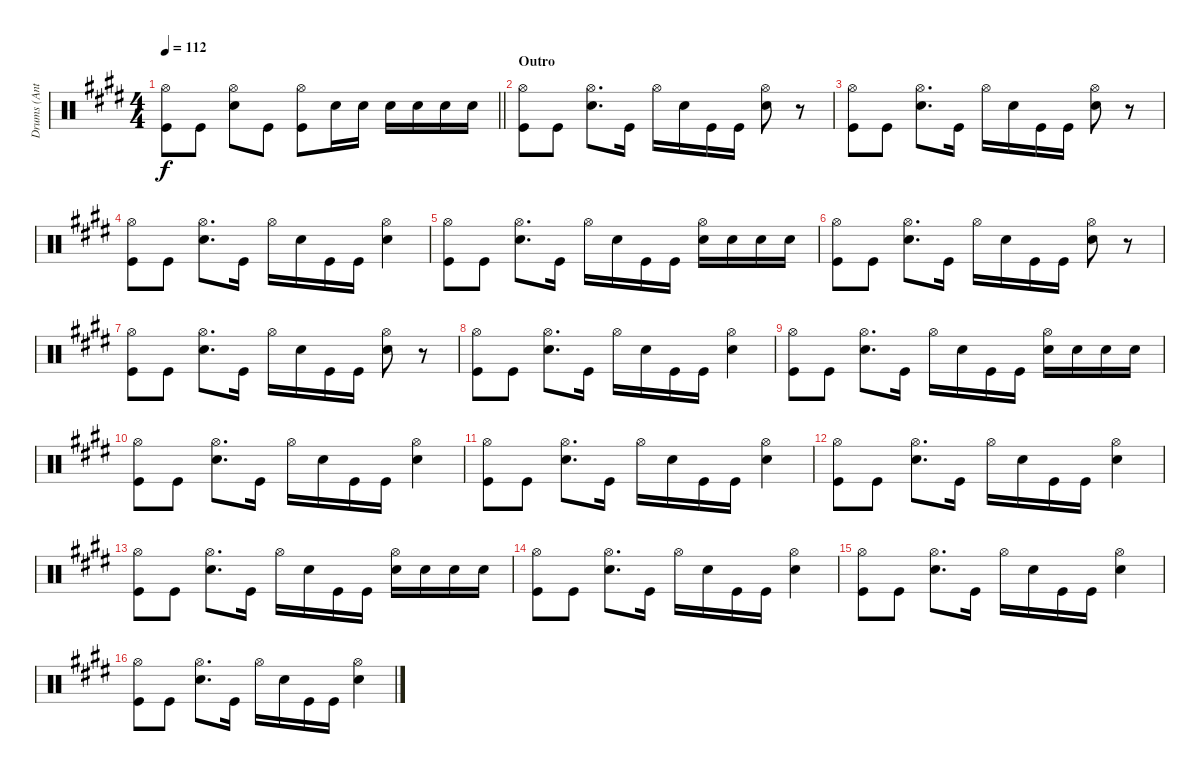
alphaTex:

\track ("Drums (Ant)" "Drums (Ant") {instrument percussion}
\staff {score}
\articulation defaults
\ts (4 4)
\tempo 112
\clef neutral
\barLineRight lightlight
\ks e
("Hi-Hat (open)" "Kick (hit)").8{dy f} "Kick (hit)".8 ("Hi-Hat (open)" "Snare (hit) 2").8 "Kick (hit)".8 ("Hi-Hat (open)" "Kick (hit)").8 "Snare (hit) 2".16 "Snare (hit) 2".16 "Snare (hit) 2".16 "Snare (hit) 2".16 "Snare (hit) 2".16 "Snare (hit) 2".16 |
\section ("" "Outro")
("Hi-Hat (open)" "Kick (hit)").8 "Kick (hit)".8 ("Hi-Hat (open)" "Snare (hit) 2").8{d} "Kick (hit)".16 "Hi-Hat (open)".16 "Snare (hit) 2".16 "Kick (hit)".16 "Kick (hit)".16 ("Hi-Hat (open)" "Snare (hit) 2").8 r.8 |
("Hi-Hat (open)" "Kick (hit)").8 "Kick (hit)".8 ("Hi-Hat (open)" "Snare (hit) 2").8{d} "Kick (hit)".16 "Hi-Hat (open)".16 "Snare (hit) 2".16 "Kick (hit)".16 "Kick (hit)".16 ("Hi-Hat (open)" "Snare (hit) 2").8 r.8 |
("Hi-Hat (open)" "Kick (hit)").8 "Kick (hit)".8 ("Hi-Hat (open)" "Snare (hit) 2").8{d} "Kick (hit)".16 "Hi-Hat (open)".16 "Snare (hit) 2".16 "Kick (hit)".16 "Kick (hit)".16 ("Hi-Hat (open)" "Snare (hit) 2").4 |
("Hi-Hat (open)" "Kick (hit)").8 "Kick (hit)".8 ("Hi-Hat (open)" "Snare (hit) 2").8{d} "Kick (hit)".16 "Hi-Hat (open)".16 "Snare (hit) 2".16 "Kick (hit)".16 "Kick (hit)".16 ("Hi-Hat (open)" "Snare (hit) 2").16 "Snare (hit) 2".16 "Snare (hit) 2".16 "Snare (hit) 2".16 |
("Hi-Hat (open)" "Kick (hit)").8 "Kick (hit)".8 ("Hi-Hat (open)" "Snare (hit) 2").8{d} "Kick (hit)".16 "Hi-Hat (open)".16 "Snare (hit) 2".16 "Kick (hit)".16 "Kick (hit)".16 ("Hi-Hat (open)" "Snare (hit) 2").8 r.8 |
("Hi-Hat (open)" "Kick (hit)").8 "Kick (hit)".8 ("Hi-Hat (open)" "Snare (hit) 2").8{d} "Kick (hit)".16 "Hi-Hat (open)".16 "Snare (hit) 2".16 "Kick (hit)".16 "Kick (hit)".16 ("Hi-Hat (open)" "Snare (hit) 2").8 r.8 |
("Hi-Hat (open)" "Kick (hit)").8 "Kick (hit)".8 ("Hi-Hat (open)" "Snare (hit) 2").8{d} "Kick (hit)".16 "Hi-Hat (open)".16 "Snare (hit) 2".16 "Kick (hit)".16 "Kick (hit)".16 ("Hi-Hat (open)" "Snare (hit) 2").4 |
("Hi-Hat (open)" "Kick (hit)").8 "Kick (hit)".8 ("Hi-Hat (open)" "Snare (hit) 2").8{d} "Kick (hit)".16 "Hi-Hat (open)".16 "Snare (hit) 2".16 "Kick (hit)".16 "Kick (hit)".16 ("Hi-Hat (open)" "Snare (hit) 2").16 "Snare (hit) 2".16 "Snare (hit) 2".16 "Snare (hit) 2".16 |
("Hi-Hat (open)" "Kick (hit)").8 "Kick (hit)".8 ("Hi-Hat (open)" "Snare (hit) 2").8{d} "Kick (hit)".16 "Hi-Hat (open)".16 "Snare (hit) 2".16 "Kick (hit)".16 "Kick (hit)".16 ("Hi-Hat (open)" "Snare (hit) 2").4 |
("Hi-Hat (open)" "Kick (hit)").8 "Kick (hit)".8 ("Hi-Hat (open)" "Snare (hit) 2").8{d} "Kick (hit)".16 "Hi-Hat (open)".16 "Snare (hit) 2".16 "Kick (hit)".16 "Kick (hit)".16 ("Hi-Hat (open)" "Snare (hit) 2").4 |
("Hi-Hat (open)" "Kick (hit)").8 "Kick (hit)".8 ("Hi-Hat (open)" "Snare (hit) 2").8{d} "Kick (hit)".16 "Hi-Hat (open)".16 "Snare (hit) 2".16 "Kick (hit)".16 "Kick (hit)".16 ("Hi-Hat (open)" "Snare (hit) 2").4 |
("Hi-Hat (open)" "Kick (hit)").8 "Kick (hit)".8 ("Hi-Hat (open)" "Snare (hit) 2").8{d} "Kick (hit)".16 "Hi-Hat (open)".16 "Snare (hit) 2".16 "Kick (hit)".16 "Kick (hit)".16 ("Hi-Hat (open)" "Snare (hit) 2").16 "Snare (hit) 2".16 "Snare (hit) 2".16 "Snare (hit) 2".16 |
("Hi-Hat (open)" "Kick (hit)").8 "Kick (hit)".8 ("Hi-Hat (open)" "Snare (hit) 2").8{d} "Kick (hit)".16 "Hi-Hat (open)".16 "Snare (hit) 2".16 "Kick (hit)".16 "Kick (hit)".16 ("Hi-Hat (open)" "Snare (hit) 2").4 |
("Hi-Hat (open)" "Kick (hit)").8 "Kick (hit)".8 ("Hi-Hat (open)" "Snare (hit) 2").8{d} "Kick (hit)".16 "Hi-Hat (open)".16 "Snare (hit) 2".16 "Kick (hit)".16 "Kick (hit)".16 ("Hi-Hat (open)" "Snare (hit) 2").4 |
("Hi-Hat (open)" "Kick (hit)").8 "Kick (hit)".8 ("Hi-Hat (open)" "Snare (hit) 2").8{d} "Kick (hit)".16 "Hi-Hat (open)".16 "Snare (hit) 2".16 "Kick (hit)".16 "Kick (hit)".16 ("Hi-Hat (open)" "Snare (hit) 2").4
